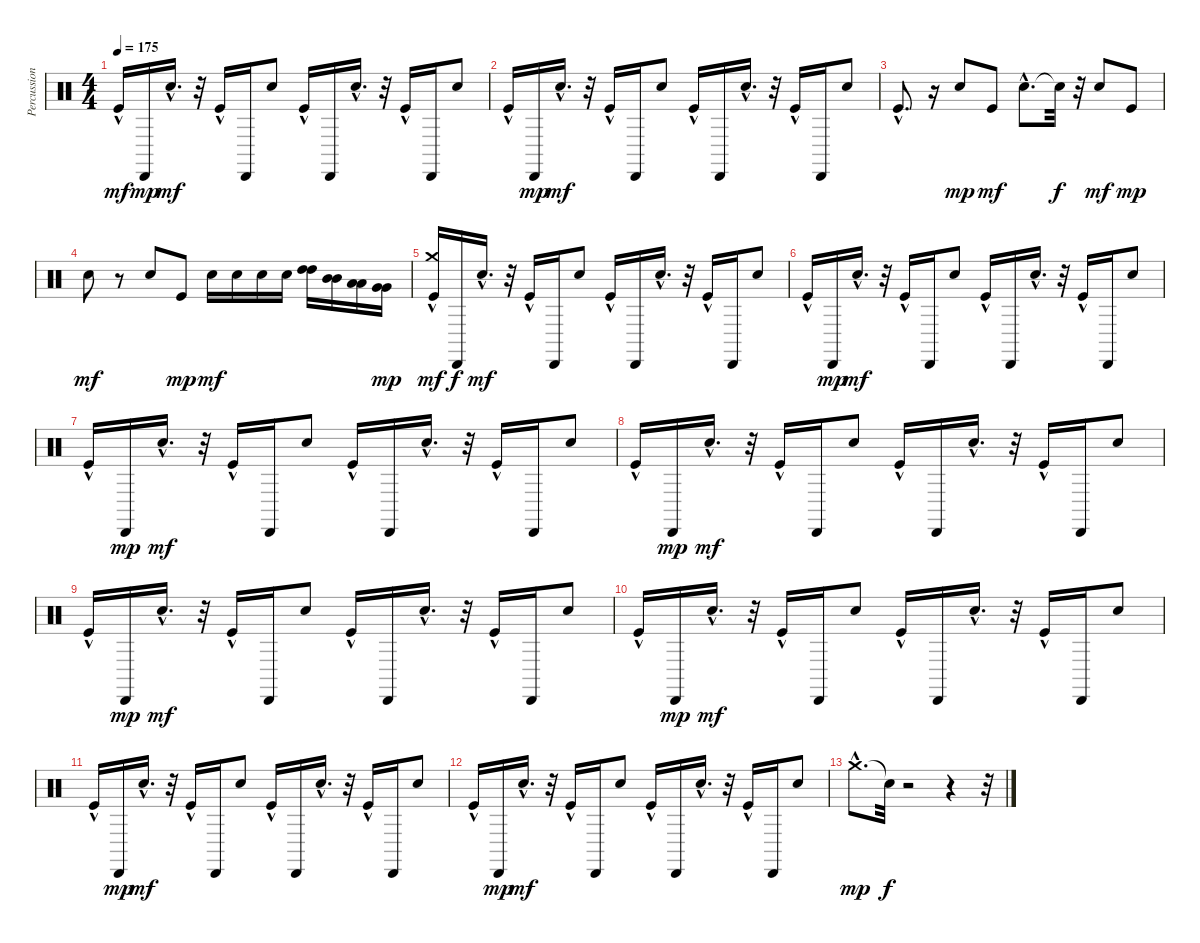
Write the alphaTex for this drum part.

\track ("Percussion" "Percussion") {instrument percussion}
\staff {score}
\articulation defaults
\ts (4 4)
\tempo 175
\clef neutral
\ks c "Kick (hit)"{hac}.16{dy mf} "Cabasa (hit)".16{dy mp} "Snare (hit) 2"{hac}.16{d dy mf}
r.32 "Kick (hit)"{hac}.16 "Cabasa (hit)".16 "Snare (hit) 2".8 "Kick (hit)"{hac}.16 "Cabasa (hit)".16 "Snare (hit) 2"{hac}.16{d} r.32 "Kick (hit)"{hac}.16 "Cabasa (hit)".16 "Snare (hit) 2".8 |
"Kick (hit)"{hac}.16 "Cabasa (hit)".16{dy mp} "Snare (hit) 2"{hac}.16{d dy mf} r.32 "Kick (hit)"{hac}.16 "Cabasa (hit)".16 "Snare (hit) 2".8 "Kick (hit)"{hac}.16 "Cabasa (hit)".16 "Snare (hit) 2"{hac}.16{d} r.32 "Kick (hit)"{hac}.16 "Cabasa (hit)".16 "Snare (hit) 2".8 |
"Kick (hit)"{hac}.8{d} r.16 "Snare (hit) 2".8{dy mp} "Kick (hit)".8{dy mf} "Snare (hit) 2"{hac}.8{d} "Snare (hit)"{t}.32{dy f} r.32 "Snare (hit) 2".8{dy mf} "Kick (hit)".8{dy mp} |
"Snare (hit) 2".8{dy mf} r.8 "Snare (hit) 2".8 "Kick (hit)".8{dy mp} "Snare (hit) 2".16{dy mf} "Snare (hit) 2".16 "Snare (hit) 2".16 "Snare (hit) 2".16 ("High Tom (hit)" "High Tom (hit)").16 ("Mid Tom (hit)" "Mid Tom (hit)").16 ("Low Tom (hit)" "Low Tom (hit)").16 ("Very Low Tom (hit)" "Very Low Tom (hit)").16{dy mp} |
("Crash medium (hit)" "Kick (hit)"{hac}).16{dy mf} "Cabasa (hit)".16{dy f} "Snare (hit) 2"{hac}.16{d dy mf} r.32 "Kick (hit)"{hac}.16 "Cabasa (hit)".16 "Snare (hit) 2".8 "Kick (hit)"{hac}.16 "Cabasa (hit)".16 "Snare (hit) 2"{hac}.16{d} r.32 "Kick (hit)"{hac}.16 "Cabasa (hit)".16 "Snare (hit) 2".8 |
"Kick (hit)"{hac}.16 "Cabasa (hit)".16{dy mp} "Snare (hit) 2"{hac}.16{d dy mf} r.32 "Kick (hit)"{hac}.16 "Cabasa (hit)".16 "Snare (hit) 2".8 "Kick (hit)"{hac}.16 "Cabasa (hit)".16 "Snare (hit) 2"{hac}.16{d} r.32 "Kick (hit)"{hac}.16 "Cabasa (hit)".16 "Snare (hit) 2".8 |
"Kick (hit)"{hac}.16 "Cabasa (hit)".16{dy mp} "Snare (hit) 2"{hac}.16{d dy mf} r.32 "Kick (hit)"{hac}.16 "Cabasa (hit)".16 "Snare (hit) 2".8 "Kick (hit)"{hac}.16 "Cabasa (hit)".16 "Snare (hit) 2"{hac}.16{d} r.32 "Kick (hit)"{hac}.16 "Cabasa (hit)".16 "Snare (hit) 2".8 |
"Kick (hit)"{hac}.16 "Cabasa (hit)".16{dy mp} "Snare (hit) 2"{hac}.16{d dy mf} r.32 "Kick (hit)"{hac}.16 "Cabasa (hit)".16 "Snare (hit) 2".8 "Kick (hit)"{hac}.16 "Cabasa (hit)".16 "Snare (hit) 2"{hac}.16{d} r.32 "Kick (hit)"{hac}.16 "Cabasa (hit)".16 "Snare (hit) 2".8 |
"Kick (hit)"{hac}.16 "Cabasa (hit)".16{dy mp} "Snare (hit) 2"{hac}.16{d dy mf} r.32 "Kick (hit)"{hac}.16 "Cabasa (hit)".16 "Snare (hit) 2".8 "Kick (hit)"{hac}.16 "Cabasa (hit)".16 "Snare (hit) 2"{hac}.16{d} r.32 "Kick (hit)"{hac}.16 "Cabasa (hit)".16 "Snare (hit) 2".8 |
"Kick (hit)"{hac}.16 "Cabasa (hit)".16{dy mp} "Snare (hit) 2"{hac}.16{d dy mf} r.32 "Kick (hit)"{hac}.16 "Cabasa (hit)".16 "Snare (hit) 2".8 "Kick (hit)"{hac}.16 "Cabasa (hit)".16 "Snare (hit) 2"{hac}.16{d} r.32 "Kick (hit)"{hac}.16 "Cabasa (hit)".16 "Snare (hit) 2".8 |
"Kick (hit)"{hac}.16 "Cabasa (hit)".16{dy mp} "Snare (hit) 2"{hac}.16{d dy mf} r.32 "Kick (hit)"{hac}.16 "Cabasa (hit)".16 "Snare (hit) 2".8 "Kick (hit)"{hac}.16 "Cabasa (hit)".16 "Snare (hit) 2"{hac}.16{d} r.32 "Kick (hit)"{hac}.16 "Cabasa (hit)".16 "Snare (hit) 2".8 |
"Kick (hit)"{hac}.16 "Cabasa (hit)".16{dy mp} "Snare (hit) 2"{hac}.16{d dy mf} r.32 "Kick (hit)"{hac}.16 "Cabasa (hit)".16 "Snare (hit) 2".8 "Kick (hit)"{hac}.16 "Cabasa (hit)".16 "Snare (hit) 2"{hac}.16{d} r.32 "Kick (hit)"{hac}.16 "Cabasa (hit)".16 "Snare (hit) 2".8 |
"Crash medium (hit)"{hac}.8{d dy mp} "Snare (hit)"{t}.32{dy f} r.2 r.4 r.32
